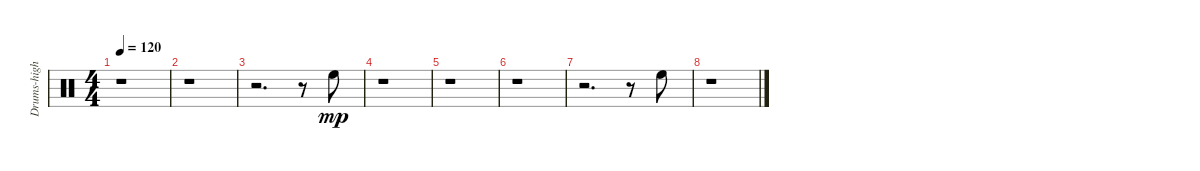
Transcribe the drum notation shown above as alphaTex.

\track ("Drums-high tom 1" "Drums-high") {instrument percussion}
\staff {score}
\articulation defaults
\ts (4 4)
\tempo 120
\clef neutral
\ks c
r.1{dy mp} |
r.1 |
r.2{d} r.8 "High Floor Tom (hit)".8 |
r.1 |
r.1 |
r.1 |
r.2{d} r.8 "High Floor Tom (hit)".8 |
r.1
